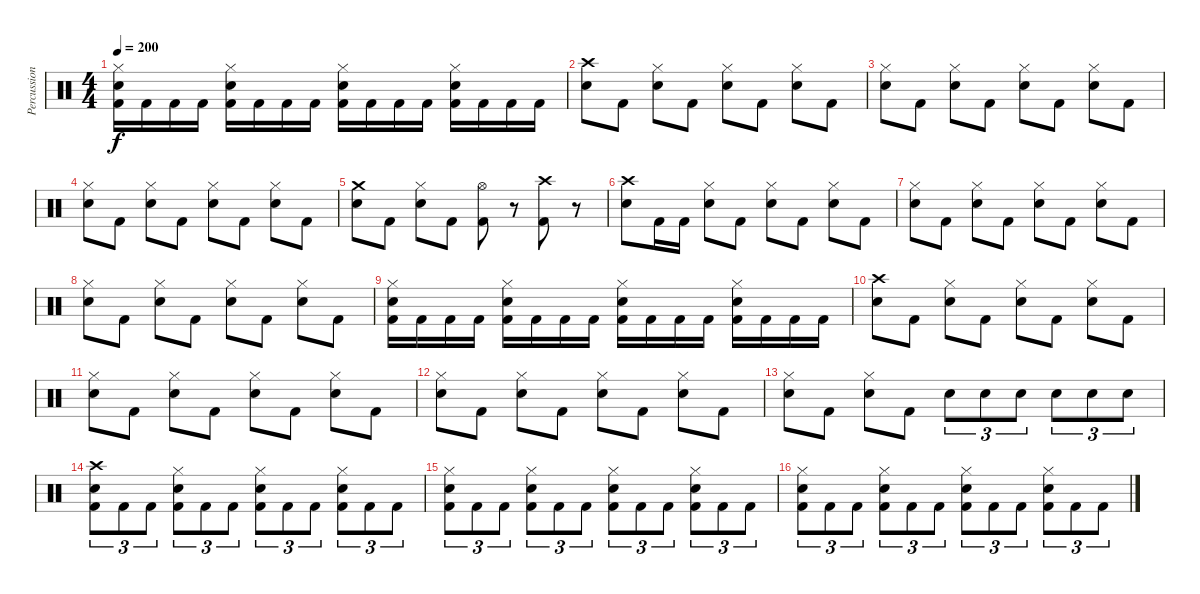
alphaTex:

\track ("Percussion" "Percussion") {instrument percussion}
\staff {score}
\articulation defaults
\ts (4 4)
\tempo 200
\clef neutral
\ks c
("Hi-Hat (closed)" "Snare (hit) 2" "Kick (hit) 2").16{dy f} "Kick (hit) 2".16 "Kick (hit) 2".16 "Kick (hit) 2".16 ("Hi-Hat (closed)" "Snare (hit) 2" "Kick (hit) 2").16 "Kick (hit) 2".16 "Kick (hit) 2".16 "Kick (hit) 2".16 ("Hi-Hat (closed)" "Snare (hit) 2" "Kick (hit) 2").16 "Kick (hit) 2".16 "Kick (hit) 2".16 "Kick (hit) 2".16 ("Hi-Hat (closed)" "Snare (hit) 2" "Kick (hit) 2").16 "Kick (hit) 2".16 "Kick (hit) 2".16 "Kick (hit) 2".16 |
("Crash high (hit)" "Snare (hit) 2").8 "Kick (hit) 2".8 ("Hi-Hat (closed)" "Snare (hit) 2").8 "Kick (hit) 2".8 ("Hi-Hat (closed)" "Snare (hit) 2").8 "Kick (hit) 2".8 ("Hi-Hat (closed)" "Snare (hit) 2").8 "Kick (hit) 2".8 |
("Hi-Hat (closed)" "Snare (hit) 2").8 "Kick (hit) 2".8 ("Hi-Hat (closed)" "Snare (hit) 2").8 "Kick (hit) 2".8 ("Hi-Hat (closed)" "Snare (hit) 2").8 "Kick (hit) 2".8 ("Hi-Hat (closed)" "Snare (hit) 2").8 "Kick (hit) 2".8 |
("Hi-Hat (closed)" "Snare (hit) 2").8 "Kick (hit) 2".8 ("Hi-Hat (closed)" "Snare (hit) 2").8 "Kick (hit) 2".8 ("Hi-Hat (closed)" "Snare (hit) 2").8 "Kick (hit) 2".8 ("Hi-Hat (closed)" "Snare (hit) 2").8 "Kick (hit) 2".8 |
("Crash medium (hit)" "Snare (hit) 2").8 "Kick (hit) 2".8 ("Hi-Hat (closed)" "Snare (hit) 2").8 "Kick (hit) 2".8 ("Hi-Hat (open)" "Kick (hit) 2").8 r.8{volume 0} ("Crash high (hit)" "Kick (hit) 2").8{volume 13} r.8 |
("Crash high (hit)" "Snare (hit) 2").8 "Kick (hit) 2".16 "Kick (hit) 2".16 ("Hi-Hat (closed)" "Snare (hit) 2").8 "Kick (hit) 2".8 ("Hi-Hat (closed)" "Snare (hit) 2").8 "Kick (hit) 2".8 ("Hi-Hat (closed)" "Snare (hit) 2").8 "Kick (hit) 2".8 |
("Hi-Hat (closed)" "Snare (hit) 2").8 "Kick (hit) 2".8 ("Hi-Hat (closed)" "Snare (hit) 2").8 "Kick (hit) 2".8 ("Hi-Hat (closed)" "Snare (hit) 2").8 "Kick (hit) 2".8 ("Hi-Hat (closed)" "Snare (hit) 2").8 "Kick (hit) 2".8 |
("Hi-Hat (closed)" "Snare (hit) 2").8 "Kick (hit) 2".8 ("Hi-Hat (closed)" "Snare (hit) 2").8 "Kick (hit) 2".8 ("Hi-Hat (closed)" "Snare (hit) 2").8 "Kick (hit) 2".8 ("Hi-Hat (closed)" "Snare (hit) 2").8 "Kick (hit) 2".8 |
("Hi-Hat (closed)" "Snare (hit) 2" "Kick (hit) 2").16 "Kick (hit) 2".16 "Kick (hit) 2".16 "Kick (hit) 2".16 ("Hi-Hat (closed)" "Snare (hit) 2" "Kick (hit) 2").16 "Kick (hit) 2".16 "Kick (hit) 2".16 "Kick (hit) 2".16 ("Hi-Hat (closed)" "Snare (hit) 2" "Kick (hit) 2").16 "Kick (hit) 2".16 "Kick (hit) 2".16 "Kick (hit) 2".16 ("Hi-Hat (closed)" "Snare (hit) 2" "Kick (hit) 2").16 "Kick (hit) 2".16 "Kick (hit) 2".16 "Kick (hit) 2".16 |
("Crash high (hit)" "Snare (hit) 2").8 "Kick (hit) 2".8 ("Hi-Hat (closed)" "Snare (hit) 2").8 "Kick (hit) 2".8 ("Hi-Hat (closed)" "Snare (hit) 2").8 "Kick (hit) 2".8 ("Hi-Hat (closed)" "Snare (hit) 2").8 "Kick (hit) 2".8 |
("Hi-Hat (closed)" "Snare (hit) 2").8 "Kick (hit) 2".8 ("Hi-Hat (closed)" "Snare (hit) 2").8 "Kick (hit) 2".8 ("Hi-Hat (closed)" "Snare (hit) 2").8 "Kick (hit) 2".8 ("Hi-Hat (closed)" "Snare (hit) 2").8 "Kick (hit) 2".8 |
("Hi-Hat (closed)" "Snare (hit) 2").8 "Kick (hit) 2".8 ("Hi-Hat (closed)" "Snare (hit) 2").8 "Kick (hit) 2".8 ("Hi-Hat (closed)" "Snare (hit) 2").8 "Kick (hit) 2".8 ("Hi-Hat (closed)" "Snare (hit) 2").8 "Kick (hit) 2".8 |
("Hi-Hat (closed)" "Snare (hit) 2").8 "Kick (hit) 2".8 ("Hi-Hat (closed)" "Snare (hit) 2").8 "Kick (hit) 2".8 "Snare (hit) 2".8{tu (3 2)} "Snare (hit) 2".8{tu (3 2)} "Snare (hit) 2".8{tu (3 2)} "Snare (hit) 2".8{tu (3 2)} "Snare (hit) 2".8{tu (3 2)} "Snare (hit) 2".8{tu (3 2)} |
("Crash high (hit)" "Snare (hit) 2" "Kick (hit) 2").8{tu (3 2)} "Kick (hit) 2".8{tu (3 2)} "Kick (hit) 2".8{tu (3 2)} ("Hi-Hat (closed)" "Snare (hit) 2" "Kick (hit) 2").8{tu (3 2)} "Kick (hit) 2".8{tu (3 2)} "Kick (hit) 2".8{tu (3 2)} ("Hi-Hat (closed)" "Snare (hit) 2" "Kick (hit) 2").8{tu (3 2)} "Kick (hit) 2".8{tu (3 2)} "Kick (hit) 2".8{tu (3 2)} ("Hi-Hat (closed)" "Snare (hit) 2" "Kick (hit) 2").8{tu (3 2)} "Kick (hit) 2".8{tu (3 2)} "Kick (hit) 2".8{tu (3 2)} |
("Hi-Hat (closed)" "Snare (hit) 2" "Kick (hit) 2").8{tu (3 2)} "Kick (hit) 2".8{tu (3 2)} "Kick (hit) 2".8{tu (3 2)} ("Hi-Hat (closed)" "Snare (hit) 2" "Kick (hit) 2").8{tu (3 2)} "Kick (hit) 2".8{tu (3 2)} "Kick (hit) 2".8{tu (3 2)} ("Hi-Hat (closed)" "Snare (hit) 2" "Kick (hit) 2").8{tu (3 2)} "Kick (hit) 2".8{tu (3 2)} "Kick (hit) 2".8{tu (3 2)} ("Hi-Hat (closed)" "Snare (hit) 2" "Kick (hit) 2").8{tu (3 2)} "Kick (hit) 2".8{tu (3 2)} "Kick (hit) 2".8{tu (3 2)} |
("Hi-Hat (closed)" "Snare (hit) 2" "Kick (hit) 2").8{tu (3 2)} "Kick (hit) 2".8{tu (3 2)} "Kick (hit) 2".8{tu (3 2)} ("Hi-Hat (closed)" "Snare (hit) 2" "Kick (hit) 2").8{tu (3 2)} "Kick (hit) 2".8{tu (3 2)} "Kick (hit) 2".8{tu (3 2)} ("Hi-Hat (closed)" "Snare (hit) 2" "Kick (hit) 2").8{tu (3 2)} "Kick (hit) 2".8{tu (3 2)} "Kick (hit) 2".8{tu (3 2)} ("Hi-Hat (closed)" "Snare (hit) 2" "Kick (hit) 2").8{tu (3 2)} "Kick (hit) 2".8{tu (3 2)} "Kick (hit) 2".8{tu (3 2)}
